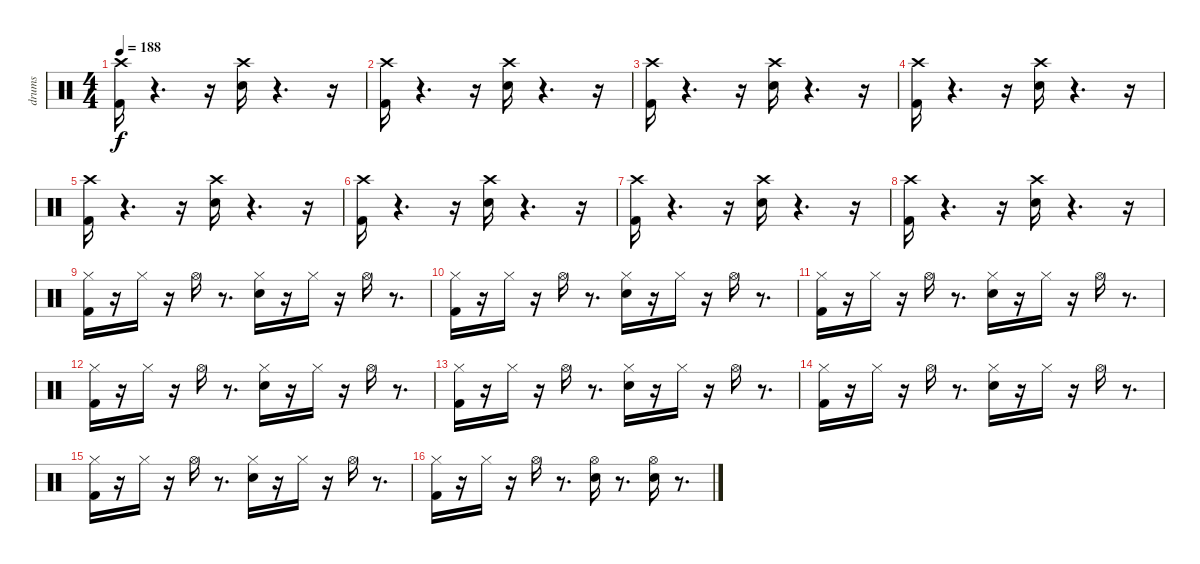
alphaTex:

\track ("drums" "drums") {instrument percussion}
\staff {score}
\articulation defaults
\ts (4 4)
\tempo 188
\clef neutral
\ks c
("Kick (hit) 2" "Crash high (hit)").16{dy f} r.4{d} r.16 ("Snare (hit) 2" "Crash high (hit)").16 r.4{d} r.16 |
("Kick (hit) 2" "Crash high (hit)").16 r.4{d} r.16 ("Snare (hit) 2" "Crash high (hit)").16 r.4{d} r.16 |
("Kick (hit) 2" "Crash high (hit)").16 r.4{d} r.16 ("Snare (hit) 2" "Crash high (hit)").16 r.4{d} r.16 |
("Kick (hit) 2" "Crash high (hit)").16 r.4{d} r.16 ("Snare (hit) 2" "Crash high (hit)").16 r.4{d} r.16 |
("Kick (hit) 2" "Crash high (hit)").16 r.4{d} r.16 ("Snare (hit) 2" "Crash high (hit)").16 r.4{d} r.16 |
("Kick (hit) 2" "Crash high (hit)").16 r.4{d} r.16 ("Snare (hit) 2" "Crash high (hit)").16 r.4{d} r.16 |
("Kick (hit) 2" "Crash high (hit)").16 r.4{d} r.16 ("Snare (hit) 2" "Crash high (hit)").16 r.4{d} r.16 |
("Kick (hit) 2" "Crash high (hit)").16 r.4{d} r.16 ("Snare (hit) 2" "Crash high (hit)").16 r.4{d} r.16 |
("Kick (hit) 2" "Hi-Hat (closed)").16 r.16 "Hi-Hat (closed)".16 r.16 "Hi-Hat (open)".16 r.8{d} ("Snare (hit) 2" "Hi-Hat (closed)").16 r.16 "Hi-Hat (closed)".16 r.16 "Hi-Hat (open)".16 r.8{d} |
("Kick (hit) 2" "Hi-Hat (closed)").16 r.16 "Hi-Hat (closed)".16 r.16 "Hi-Hat (open)".16 r.8{d} ("Snare (hit) 2" "Hi-Hat (closed)").16 r.16 "Hi-Hat (closed)".16 r.16 "Hi-Hat (open)".16 r.8{d} |
("Kick (hit) 2" "Hi-Hat (closed)").16 r.16 "Hi-Hat (closed)".16 r.16 "Hi-Hat (open)".16 r.8{d} ("Snare (hit) 2" "Hi-Hat (closed)").16 r.16 "Hi-Hat (closed)".16 r.16 "Hi-Hat (open)".16 r.8{d} |
("Kick (hit) 2" "Hi-Hat (closed)").16 r.16 "Hi-Hat (closed)".16 r.16 "Hi-Hat (open)".16 r.8{d} ("Snare (hit) 2" "Hi-Hat (closed)").16 r.16 "Hi-Hat (closed)".16 r.16 "Hi-Hat (open)".16 r.8{d} |
("Kick (hit) 2" "Hi-Hat (closed)").16 r.16 "Hi-Hat (closed)".16 r.16 "Hi-Hat (open)".16 r.8{d} ("Snare (hit) 2" "Hi-Hat (closed)").16 r.16 "Hi-Hat (closed)".16 r.16 "Hi-Hat (open)".16 r.8{d} |
("Kick (hit) 2" "Hi-Hat (closed)").16 r.16 "Hi-Hat (closed)".16 r.16 "Hi-Hat (open)".16 r.8{d} ("Snare (hit) 2" "Hi-Hat (closed)").16 r.16 "Hi-Hat (closed)".16 r.16 "Hi-Hat (open)".16 r.8{d} |
("Kick (hit) 2" "Hi-Hat (closed)").16 r.16 "Hi-Hat (closed)".16 r.16 "Hi-Hat (open)".16 r.8{d} ("Snare (hit) 2" "Hi-Hat (closed)").16 r.16 "Hi-Hat (closed)".16 r.16 "Hi-Hat (open)".16 r.8{d} |
("Kick (hit) 2" "Hi-Hat (closed)").16 r.16 "Hi-Hat (closed)".16 r.16 "Hi-Hat (open)".16 r.8{d} ("Snare (hit) 2" "Hi-Hat (open)").16 r.8{d} ("Snare (hit) 2" "Hi-Hat (open)").16 r.8{d}
